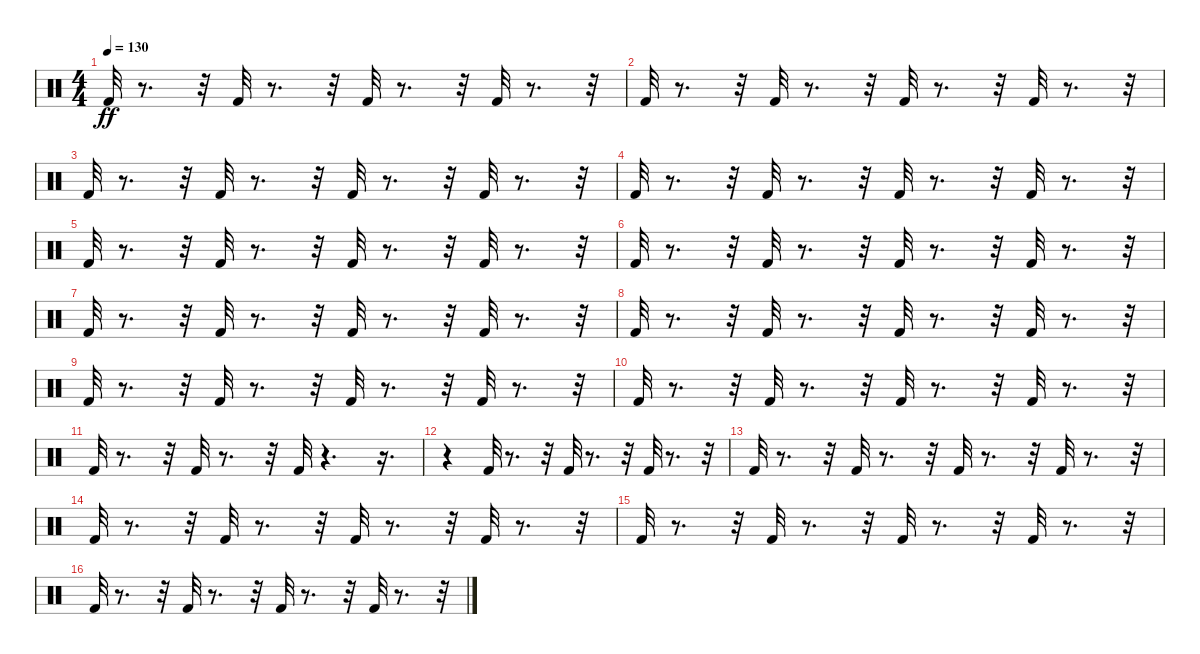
\track "" {instrument percussion}
\staff {score}
\articulation defaults
\ts (4 4)
\tempo 130
\clef neutral
\ks c "Kick (hit) 2".32{dy ff}
r.8{d} r.32 "Kick (hit) 2".32 r.8{d} r.32 "Kick (hit) 2".32 r.8{d} r.32 "Kick (hit) 2".32 r.8{d} r.32 |
"Kick (hit) 2".32 r.8{d} r.32 "Kick (hit) 2".32 r.8{d} r.32 "Kick (hit) 2".32 r.8{d} r.32 "Kick (hit) 2".32 r.8{d} r.32 |
"Kick (hit) 2".32 r.8{d} r.32 "Kick (hit) 2".32 r.8{d} r.32 "Kick (hit) 2".32 r.8{d} r.32 "Kick (hit) 2".32 r.8{d} r.32 |
"Kick (hit) 2".32 r.8{d} r.32 "Kick (hit) 2".32 r.8{d} r.32 "Kick (hit) 2".32 r.8{d} r.32 "Kick (hit) 2".32 r.8{d} r.32 |
"Kick (hit) 2".32 r.8{d} r.32 "Kick (hit) 2".32 r.8{d} r.32 "Kick (hit) 2".32 r.8{d} r.32 "Kick (hit) 2".32 r.8{d} r.32 |
"Kick (hit) 2".32 r.8{d} r.32 "Kick (hit) 2".32 r.8{d} r.32 "Kick (hit) 2".32 r.8{d} r.32 "Kick (hit) 2".32 r.8{d} r.32 |
"Kick (hit) 2".32 r.8{d} r.32 "Kick (hit) 2".32 r.8{d} r.32 "Kick (hit) 2".32 r.8{d} r.32 "Kick (hit) 2".32 r.8{d} r.32 |
"Kick (hit) 2".32 r.8{d} r.32 "Kick (hit) 2".32 r.8{d} r.32 "Kick (hit) 2".32 r.8{d} r.32 "Kick (hit) 2".32 r.8{d} r.32 |
"Kick (hit) 2".32 r.8{d} r.32 "Kick (hit) 2".32 r.8{d} r.32 "Kick (hit) 2".32 r.8{d} r.32 "Kick (hit) 2".32 r.8{d} r.32 |
"Kick (hit) 2".32 r.8{d} r.32 "Kick (hit) 2".32 r.8{d} r.32 "Kick (hit) 2".32 r.8{d} r.32 "Kick (hit) 2".32 r.8{d} r.32 |
"Kick (hit) 2".32 r.8{d} r.32 "Kick (hit) 2".32 r.8{d} r.32 "Kick (hit) 2".32 r.4{d} r.16{d} |
r.4 "Kick (hit) 2".32 r.8{d} r.32 "Kick (hit) 2".32 r.8{d} r.32 "Kick (hit) 2".32 r.8{d} r.32 |
"Kick (hit) 2".32 r.8{d} r.32 "Kick (hit) 2".32 r.8{d} r.32 "Kick (hit) 2".32 r.8{d} r.32 "Kick (hit) 2".32 r.8{d} r.32 |
"Kick (hit) 2".32 r.8{d} r.32 "Kick (hit) 2".32 r.8{d} r.32 "Kick (hit) 2".32 r.8{d} r.32 "Kick (hit) 2".32 r.8{d} r.32 |
"Kick (hit) 2".32 r.8{d} r.32 "Kick (hit) 2".32 r.8{d} r.32 "Kick (hit) 2".32 r.8{d} r.32 "Kick (hit) 2".32 r.8{d} r.32 |
"Kick (hit) 2".32 r.8{d} r.32 "Kick (hit) 2".32 r.8{d} r.32 "Kick (hit) 2".32 r.8{d} r.32 "Kick (hit) 2".32 r.8{d} r.32
